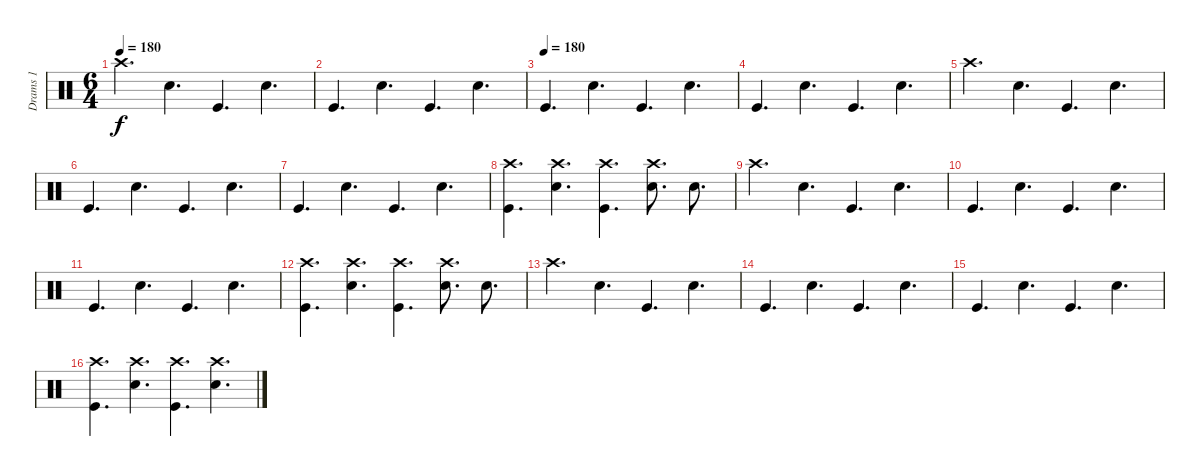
\track ("Drams 1" "Drams 1") {instrument percussion}
\staff {score}
\articulation defaults
\ts (6 4)
\tempo 180
\clef neutral
\ks c "Crash high (hit)".4{d dy f} "Snare (hit) 2".4{d} "Kick (hit)".4{d} "Snare (hit) 2".4{d}
|
"Kick (hit)".4{d} "Snare (hit) 2".4{d} "Kick (hit)".4{d} "Snare (hit) 2".4{d} |
\tempo (180)
"Kick (hit)".4{d} "Snare (hit) 2".4{d} "Kick (hit)".4{d} "Snare (hit) 2".4{d} |
"Kick (hit)".4{d} "Snare (hit) 2".4{d} "Kick (hit)".4{d} "Snare (hit) 2".4{d} |
"Crash high (hit)".4{d} "Snare (hit) 2".4{d} "Kick (hit)".4{d} "Snare (hit) 2".4{d} |
"Kick (hit)".4{d} "Snare (hit) 2".4{d} "Kick (hit)".4{d} "Snare (hit) 2".4{d} |
"Kick (hit)".4{d} "Snare (hit) 2".4{d} "Kick (hit)".4{d} "Snare (hit) 2".4{d} |
("Kick (hit)" "Crash high (hit)").4{d} ("Snare (hit) 2" "Crash high (hit)").4{d} ("Kick (hit)" "Crash high (hit)").4{d} ("Snare (hit) 2" "Crash high (hit)").8{d} "Snare (hit) 2".8{d} |
"Crash high (hit)".4{d} "Snare (hit) 2".4{d} "Kick (hit)".4{d} "Snare (hit) 2".4{d} |
"Kick (hit)".4{d} "Snare (hit) 2".4{d} "Kick (hit)".4{d} "Snare (hit) 2".4{d} |
"Kick (hit)".4{d} "Snare (hit) 2".4{d} "Kick (hit)".4{d} "Snare (hit) 2".4{d} |
("Kick (hit)" "Crash high (hit)").4{d} ("Snare (hit) 2" "Crash high (hit)").4{d} ("Kick (hit)" "Crash high (hit)").4{d} ("Snare (hit) 2" "Crash high (hit)").8{d} "Snare (hit) 2".8{d} |
"Crash high (hit)".4{d} "Snare (hit) 2".4{d} "Kick (hit)".4{d} "Snare (hit) 2".4{d} |
"Kick (hit)".4{d} "Snare (hit) 2".4{d} "Kick (hit)".4{d} "Snare (hit) 2".4{d} |
"Kick (hit)".4{d} "Snare (hit) 2".4{d} "Kick (hit)".4{d} "Snare (hit) 2".4{d} |
("Kick (hit)" "Crash high (hit)").4{d} ("Snare (hit) 2" "Crash high (hit)").4{d} ("Kick (hit)" "Crash high (hit)").4{d} ("Snare (hit) 2" "Crash high (hit)").4{d}
